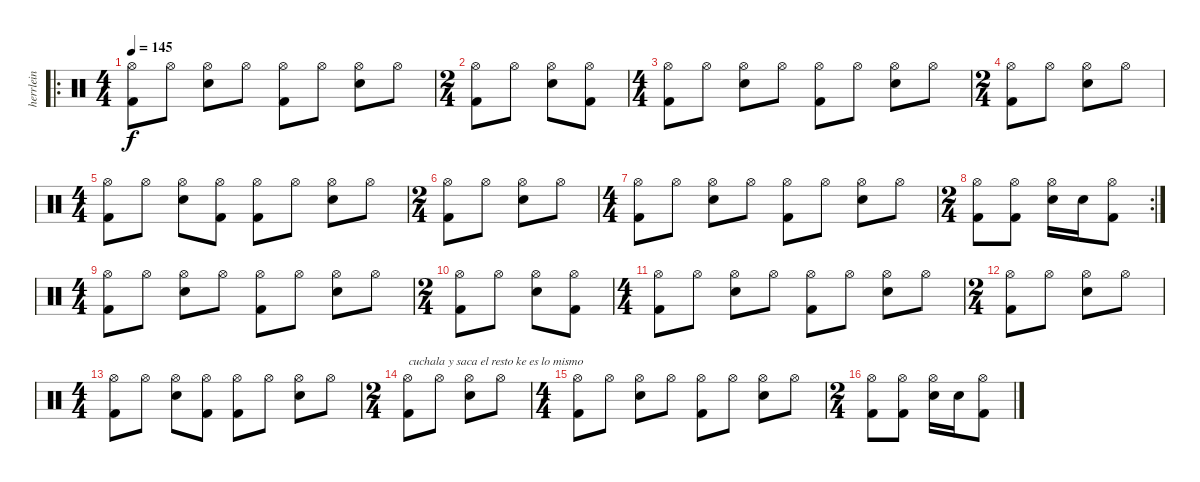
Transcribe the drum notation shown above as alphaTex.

\track ("herrlein" "herrlein") {instrument percussion}
\staff {score}
\articulation defaults
\ro
\ts (4 4)
\tempo 145
\clef neutral
\ks c
("Kick (hit) 2" "Hi-Hat (open)").8{dy f} "Hi-Hat (open)".8 ("Hi-Hat (open)" "Snare (hit) 2").8 "Hi-Hat (open)".8 ("Kick (hit) 2" "Hi-Hat (open)").8 "Hi-Hat (open)".8 ("Hi-Hat (open)" "Snare (hit) 2").8 "Hi-Hat (open)".8 |
\ts (2 4)
("Kick (hit) 2" "Hi-Hat (open)").8 "Hi-Hat (open)".8 ("Hi-Hat (open)" "Snare (hit) 2").8 ("Kick (hit) 2" "Hi-Hat (open)").8 |
\ts (4 4)
("Kick (hit) 2" "Hi-Hat (open)").8 "Hi-Hat (open)".8 ("Hi-Hat (open)" "Snare (hit) 2").8 "Hi-Hat (open)".8 ("Kick (hit) 2" "Hi-Hat (open)").8 "Hi-Hat (open)".8 ("Hi-Hat (open)" "Snare (hit) 2").8 "Hi-Hat (open)".8 |
\ts (2 4)
("Kick (hit) 2" "Hi-Hat (open)").8 "Hi-Hat (open)".8 ("Hi-Hat (open)" "Snare (hit) 2").8 "Hi-Hat (open)".8 |
\ts (4 4)
("Kick (hit) 2" "Hi-Hat (open)").8 "Hi-Hat (open)".8 ("Hi-Hat (open)" "Snare (hit) 2").8 ("Kick (hit) 2" "Hi-Hat (open)").8 ("Kick (hit) 2" "Hi-Hat (open)").8 "Hi-Hat (open)".8 ("Hi-Hat (open)" "Snare (hit) 2").8 "Hi-Hat (open)".8 |
\ts (2 4)
("Kick (hit) 2" "Hi-Hat (open)").8 "Hi-Hat (open)".8 ("Hi-Hat (open)" "Snare (hit) 2").8 "Hi-Hat (open)".8 |
\ts (4 4)
("Kick (hit) 2" "Hi-Hat (open)").8 "Hi-Hat (open)".8 ("Hi-Hat (open)" "Snare (hit) 2").8 "Hi-Hat (open)".8 ("Kick (hit) 2" "Hi-Hat (open)").8 "Hi-Hat (open)".8 ("Hi-Hat (open)" "Snare (hit) 2").8 "Hi-Hat (open)".8 |
\rc 2
\ts (2 4)
("Kick (hit) 2" "Hi-Hat (open)").8 ("Kick (hit) 2" "Hi-Hat (open)").8 ("Hi-Hat (open)" "Snare (hit) 2").16 "Snare (hit) 2".16 ("Kick (hit) 2" "Hi-Hat (open)").8 |
\ts (4 4)
("Kick (hit) 2" "Hi-Hat (open)").8 "Hi-Hat (open)".8 ("Hi-Hat (open)" "Snare (hit) 2").8 "Hi-Hat (open)".8 ("Kick (hit) 2" "Hi-Hat (open)").8 "Hi-Hat (open)".8 ("Hi-Hat (open)" "Snare (hit) 2").8 "Hi-Hat (open)".8 |
\ts (2 4)
("Kick (hit) 2" "Hi-Hat (open)").8 "Hi-Hat (open)".8 ("Hi-Hat (open)" "Snare (hit) 2").8 ("Kick (hit) 2" "Hi-Hat (open)").8 |
\ts (4 4)
("Kick (hit) 2" "Hi-Hat (open)").8 "Hi-Hat (open)".8 ("Hi-Hat (open)" "Snare (hit) 2").8 "Hi-Hat (open)".8 ("Kick (hit) 2" "Hi-Hat (open)").8 "Hi-Hat (open)".8 ("Hi-Hat (open)" "Snare (hit) 2").8 "Hi-Hat (open)".8 |
\ts (2 4)
("Kick (hit) 2" "Hi-Hat (open)").8 "Hi-Hat (open)".8 ("Hi-Hat (open)" "Snare (hit) 2").8 "Hi-Hat (open)".8 |
\ts (4 4)
("Kick (hit) 2" "Hi-Hat (open)").8 "Hi-Hat (open)".8 ("Hi-Hat (open)" "Snare (hit) 2").8 ("Kick (hit) 2" "Hi-Hat (open)").8 ("Kick (hit) 2" "Hi-Hat (open)").8 "Hi-Hat (open)".8 ("Hi-Hat (open)" "Snare (hit) 2").8 "Hi-Hat (open)".8 |
\ts (2 4)
("Kick (hit) 2" "Hi-Hat (open)").8{txt "cuchala y saca el resto ke es lo mismo"} "Hi-Hat (open)".8 ("Hi-Hat (open)" "Snare (hit) 2").8 "Hi-Hat (open)".8 |
\ts (4 4)
("Kick (hit) 2" "Hi-Hat (open)").8 "Hi-Hat (open)".8 ("Hi-Hat (open)" "Snare (hit) 2").8 "Hi-Hat (open)".8 ("Kick (hit) 2" "Hi-Hat (open)").8 "Hi-Hat (open)".8 ("Hi-Hat (open)" "Snare (hit) 2").8 "Hi-Hat (open)".8 |
\ts (2 4)
("Kick (hit) 2" "Hi-Hat (open)").8 ("Kick (hit) 2" "Hi-Hat (open)").8 ("Hi-Hat (open)" "Snare (hit) 2").16 "Snare (hit) 2".16 ("Kick (hit) 2" "Hi-Hat (open)").8
